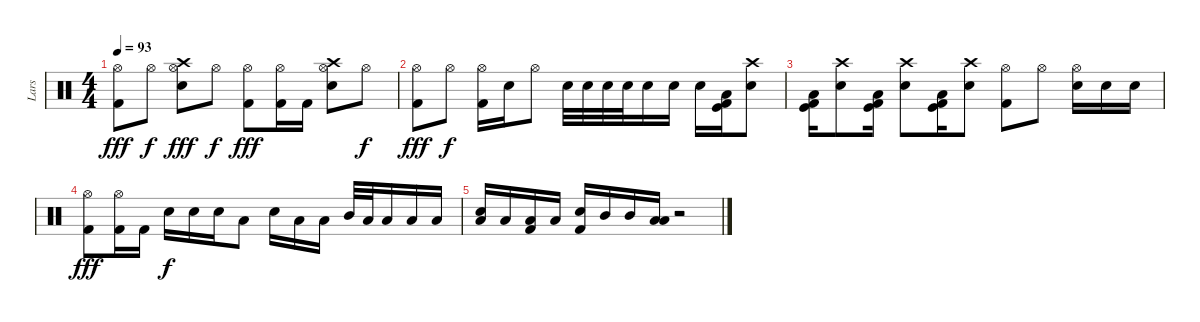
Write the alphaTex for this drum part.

\track ("Lars" "Lars") {instrument percussion}
\staff {score}
\articulation defaults
\ts (4 4)
\tempo 93
\clef neutral
\ks c
("Hi-Hat (open)" "Kick (hit) 2").8{dy fff} "Hi-Hat (open)".8{dy f} ("Crash high (hit)" "Hi-Hat (open)" "Snare (hit) 2").8{dy fff} "Hi-Hat (open)".8{dy f} ("Hi-Hat (open)" "Kick (hit) 2").8{dy fff} ("Hi-Hat (open)" "Kick (hit) 2").16 "Kick (hit) 2".16 ("Crash high (hit)" "Hi-Hat (open)" "Snare (hit) 2").8 "Hi-Hat (open)".8{dy f} |
("Hi-Hat (open)" "Kick (hit) 2").8{dy fff} "Hi-Hat (open)".8{dy f} ("Hi-Hat (open)" "Kick (hit) 2").16 "Snare (hit) 2".16 "Hi-Hat (open)".8 "Snare (hit) 2".32 "Snare (hit) 2".32 "Snare (hit) 2".32 "Snare (hit) 2".32 "Snare (hit) 2".16 "Snare (hit) 2".16 "Snare (hit) 2".16 ("Low Floor Tom (hit)" "Kick (hit)" "Kick (hit) 2").16 ("Crash high (hit)" "Snare (hit) 2").8 |
("Low Floor Tom (hit)" "Kick (hit)" "Kick (hit) 2").16 ("Crash high (hit)" "Snare (hit) 2").8 ("Low Floor Tom (hit)" "Kick (hit)" "Kick (hit) 2").16 ("Crash high (hit)" "Snare (hit) 2").8 ("Low Floor Tom (hit)" "Kick (hit)" "Kick (hit) 2").16 ("Crash high (hit)" "Snare (hit) 2").8 ("Hi-Hat (open)" "Kick (hit) 2").8 "Hi-Hat (open)".8 ("Hi-Hat (open)" "Snare (hit) 2").16 "Snare (hit) 2".16 "Snare (hit) 2".16 |
("Hi-Hat (open)" "Kick (hit) 2").8{dy fff} ("Hi-Hat (open)" "Kick (hit) 2").16 "Kick (hit) 2".16 "Snare (hit) 2".16{dy f} "Snare (hit) 2".16 "Snare (hit) 2".16 "Low Floor Tom (hit)".8 "Snare (hit) 2".16 "Low Tom (hit)".16 "Low Floor Tom (hit)".16 "Mid Tom (hit)".32 "Low Tom (hit)".32 "Low Tom (hit)".16 "Low Tom (hit)".16 "Low Floor Tom (hit)".16 |
("Snare (hit) 2" "Low Tom (hit)").16 "Low Floor Tom (hit)".16 ("Low Floor Tom (hit)" "Kick (hit) 2").16 "Low Tom (hit)".16 ("Snare (hit) 2" "Kick (hit) 2").16 "Mid Tom (hit)".16 "Mid Tom (hit)".16 ("Low Tom (hit)" "Low Floor Tom (hit)").16 r.2
